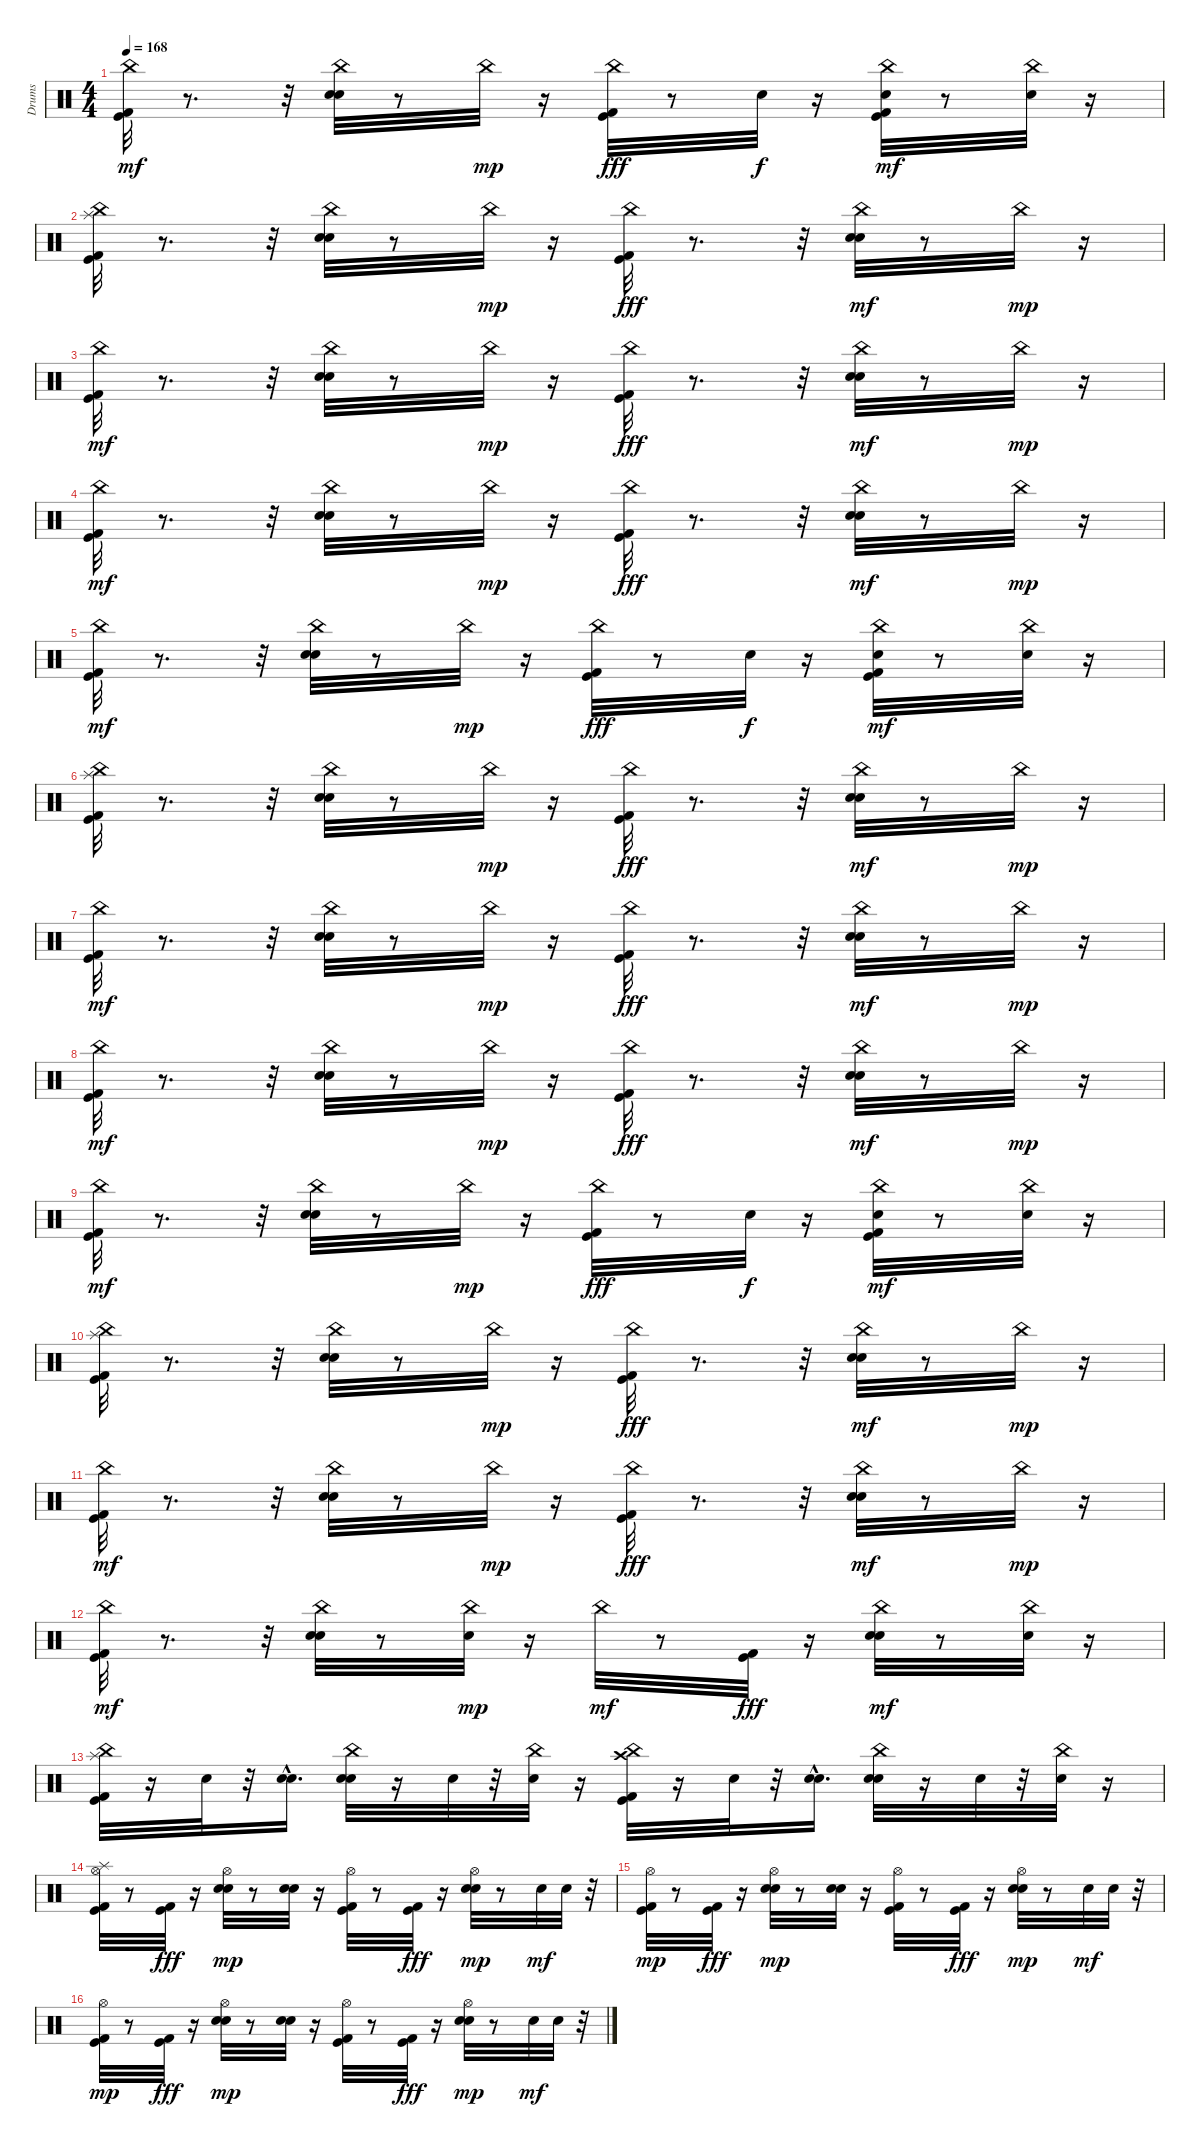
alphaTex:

\track ("Drums" "Drums") {instrument percussion}
\staff {score}
\articulation defaults
\ts (4 4)
\tempo 168
\clef neutral
\ks c
("Kick (hit) 2" "Kick (hit)" "China (hit)").32{dy mf} r.8{d} r.32 ("Snare (hit) 2" "China (hit)" "Hand Clap (hit)").32 r.8 "China (hit)".32{dy mp} r.16 ("China (hit)" "Kick (hit) 2" "Kick (hit)").32{dy fff} r.8 "Snare (hit) 2".32{dy f} r.16 ("China (hit)" "Kick (hit) 2" "Kick (hit)" "Hand Clap (hit)").32{dy mf} r.8 ("China (hit)" "Snare (hit) 2").32 r.16 |
("Kick (hit) 2" "Kick (hit)" "Splash (hit)" "China (hit)").32 r.8{d} r.32 ("Snare (hit) 2" "China (hit)" "Hand Clap (hit)").32 r.8 "China (hit)".32{dy mp} r.16 ("China (hit)" "Kick (hit) 2" "Kick (hit)").32{dy fff} r.8{d} r.32 ("Snare (hit) 2" "China (hit)" "Hand Clap (hit)").32{dy mf} r.8 "China (hit)".32{dy mp} r.16 |
("Kick (hit) 2" "Kick (hit)" "China (hit)").32{dy mf} r.8{d} r.32 ("Snare (hit) 2" "China (hit)" "Hand Clap (hit)").32 r.8 "China (hit)".32{dy mp} r.16 ("China (hit)" "Kick (hit) 2" "Kick (hit)").32{dy fff} r.8{d} r.32 ("Snare (hit) 2" "China (hit)" "Hand Clap (hit)").32{dy mf} r.8 "China (hit)".32{dy mp} r.16 |
("Kick (hit) 2" "Kick (hit)" "China (hit)").32{dy mf} r.8{d} r.32 ("Snare (hit) 2" "China (hit)" "Hand Clap (hit)").32 r.8 "China (hit)".32{dy mp} r.16 ("China (hit)" "Kick (hit) 2" "Kick (hit)").32{dy fff} r.8{d} r.32 ("Snare (hit) 2" "China (hit)" "Hand Clap (hit)").32{dy mf} r.8 "China (hit)".32{dy mp} r.16 |
("Kick (hit) 2" "Kick (hit)" "China (hit)").32{dy mf} r.8{d} r.32 ("Snare (hit) 2" "China (hit)" "Hand Clap (hit)").32 r.8 "China (hit)".32{dy mp} r.16 ("China (hit)" "Kick (hit) 2" "Kick (hit)").32{dy fff} r.8 "Snare (hit) 2".32{dy f} r.16 ("China (hit)" "Kick (hit) 2" "Kick (hit)" "Hand Clap (hit)").32{dy mf} r.8 ("China (hit)" "Snare (hit) 2").32 r.16 |
("Kick (hit) 2" "Kick (hit)" "Splash (hit)" "China (hit)").32 r.8{d} r.32 ("Snare (hit) 2" "China (hit)" "Hand Clap (hit)").32 r.8 "China (hit)".32{dy mp} r.16 ("China (hit)" "Kick (hit) 2" "Kick (hit)").32{dy fff} r.8{d} r.32 ("Snare (hit) 2" "China (hit)" "Hand Clap (hit)").32{dy mf} r.8 "China (hit)".32{dy mp} r.16 |
("Kick (hit) 2" "Kick (hit)" "China (hit)").32{dy mf} r.8{d} r.32 ("Snare (hit) 2" "China (hit)" "Hand Clap (hit)").32 r.8 "China (hit)".32{dy mp} r.16 ("China (hit)" "Kick (hit) 2" "Kick (hit)").32{dy fff} r.8{d} r.32 ("Snare (hit) 2" "China (hit)" "Hand Clap (hit)").32{dy mf} r.8 "China (hit)".32{dy mp} r.16 |
("Kick (hit) 2" "Kick (hit)" "China (hit)").32{dy mf} r.8{d} r.32 ("Snare (hit) 2" "China (hit)" "Hand Clap (hit)").32 r.8 "China (hit)".32{dy mp} r.16 ("China (hit)" "Kick (hit) 2" "Kick (hit)").32{dy fff} r.8{d} r.32 ("Snare (hit) 2" "China (hit)" "Hand Clap (hit)").32{dy mf} r.8 "China (hit)".32{dy mp} r.16 |
("Kick (hit) 2" "Kick (hit)" "China (hit)").32{dy mf} r.8{d} r.32 ("Snare (hit) 2" "China (hit)" "Hand Clap (hit)").32 r.8 "China (hit)".32{dy mp} r.16 ("China (hit)" "Kick (hit) 2" "Kick (hit)").32{dy fff} r.8 "Snare (hit) 2".32{dy f} r.16 ("China (hit)" "Kick (hit) 2" "Kick (hit)" "Hand Clap (hit)").32{dy mf} r.8 ("China (hit)" "Snare (hit) 2").32 r.16 |
("Kick (hit) 2" "Kick (hit)" "Splash (hit)" "China (hit)").32 r.8{d} r.32 ("Snare (hit) 2" "China (hit)" "Hand Clap (hit)").32 r.8 "China (hit)".32{dy mp} r.16 ("China (hit)" "Kick (hit) 2" "Kick (hit)").32{dy fff} r.8{d} r.32 ("Snare (hit) 2" "China (hit)" "Hand Clap (hit)").32{dy mf} r.8 "China (hit)".32{dy mp} r.16 |
("Kick (hit) 2" "Kick (hit)" "China (hit)").32{dy mf} r.8{d} r.32 ("Snare (hit) 2" "China (hit)" "Hand Clap (hit)").32 r.8 "China (hit)".32{dy mp} r.16 ("China (hit)" "Kick (hit) 2" "Kick (hit)").32{dy fff} r.8{d} r.32 ("Snare (hit) 2" "China (hit)" "Hand Clap (hit)").32{dy mf} r.8 "China (hit)".32{dy mp} r.16 |
("Kick (hit) 2" "Kick (hit)" "China (hit)").32{dy mf} r.8{d} r.32 ("Snare (hit) 2" "China (hit)" "Hand Clap (hit)").32 r.8 ("China (hit)" "Snare (hit) 2").32{dy mp} r.16 "China (hit)".32{dy mf} r.8 ("Kick (hit) 2" "Kick (hit)").32{dy fff} r.16 ("Snare (hit) 2" "China (hit)" "Hand Clap (hit)").32{dy mf} r.8 ("China (hit)" "Snare (hit) 2").32 r.16 |
("Kick (hit) 2" "Kick (hit)" "China (hit)" "Splash (hit)").32 r.16 "Snare (hit) 2".32 r.32 ("Snare (hit) 2"{hac} "Snare (hit) 2").16{d} ("Snare (hit) 2" "China (hit)" "Hand Clap (hit)").32 r.16 "Snare (hit) 2".32 r.32 ("China (hit)" "Snare (hit) 2").32 r.16 ("China (hit)" "Kick (hit) 2" "Kick (hit)" "Crash high (hit)").32 r.16 "Snare (hit) 2".32 r.32 ("Snare (hit) 2"{hac} "Snare (hit) 2").16{d} ("China (hit)" "Hand Clap (hit)" "Snare (hit) 2").32 r.16 "Snare (hit) 2".32 r.32 ("China (hit)" "Snare (hit) 2").32 r.16 |
("Kick (hit) 2" "Kick (hit)" "Hi-Hat (open)" "Splash (hit)").32 r.8 ("Kick (hit) 2" "Kick (hit)").32{dy fff} r.16 ("Snare (hit) 2" "Hand Clap (hit)" "Hi-Hat (open)").32{dy mp} r.8 ("Snare (hit) 2" "Hand Clap (hit)").32 r.16 ("Kick (hit) 2" "Kick (hit)" "Hi-Hat (open)").32 r.8 ("Kick (hit) 2" "Kick (hit)").32{dy fff} r.16 ("Snare (hit) 2" "Hand Clap (hit)" "Hi-Hat (open)").32{dy mp} r.8 "Snare (hit) 2".32{dy mf} "Hand Clap (hit)".32 r.32 |
("Kick (hit) 2" "Kick (hit)" "Hi-Hat (open)").32{dy mp} r.8 ("Kick (hit) 2" "Kick (hit)").32{dy fff} r.16 ("Snare (hit) 2" "Hand Clap (hit)" "Hi-Hat (open)").32{dy mp} r.8 ("Snare (hit) 2" "Hand Clap (hit)").32 r.16 ("Kick (hit) 2" "Kick (hit)" "Hi-Hat (open)").32 r.8 ("Kick (hit) 2" "Kick (hit)").32{dy fff} r.16 ("Snare (hit) 2" "Hand Clap (hit)" "Hi-Hat (open)").32{dy mp} r.8 "Snare (hit) 2".32{dy mf} "Hand Clap (hit)".32 r.32 |
("Kick (hit) 2" "Kick (hit)" "Hi-Hat (open)").32{dy mp} r.8 ("Kick (hit) 2" "Kick (hit)").32{dy fff} r.16 ("Snare (hit) 2" "Hand Clap (hit)" "Hi-Hat (open)").32{dy mp} r.8 ("Snare (hit) 2" "Hand Clap (hit)").32 r.16 ("Kick (hit) 2" "Kick (hit)" "Hi-Hat (open)").32 r.8 ("Kick (hit) 2" "Kick (hit)").32{dy fff} r.16 ("Snare (hit) 2" "Hand Clap (hit)" "Hi-Hat (open)").32{dy mp} r.8 "Snare (hit) 2".32{dy mf} "Hand Clap (hit)".32 r.32
